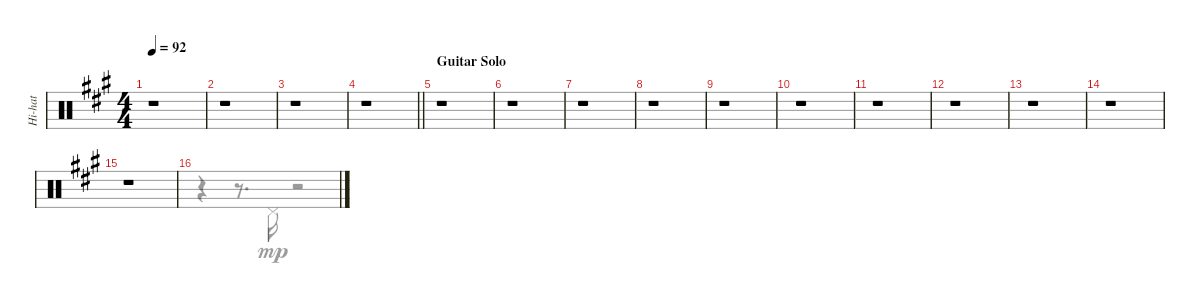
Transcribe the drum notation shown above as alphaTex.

\track ("Hi-hat" "Hi-hat") {instrument percussion}
\staff {score}
\articulation defaults
\voice
\ts (4 4)
\tempo 92
\clef neutral
\ks f#minor
r.1{dy mp} |
r.1 |
r.1 |
\barLineRight lightlight
r.1 |
\section ("" "Guitar Solo")
r.1 |
r.1 |
r.1 |
r.1 |
r.1 |
r.1 |
r.1 |
r.1 |
r.1 |
r.1 |
r.1 |
\voice
\clef neutral
\ottava regular
\simile none
\ks f#minor
|
|
|
\barLineRight lightlight
|
|
|
|
|
|
|
|
|
|
|
|
r.4 r.8{d} "Pedal Hi-Hat (hit)".16 r.2
